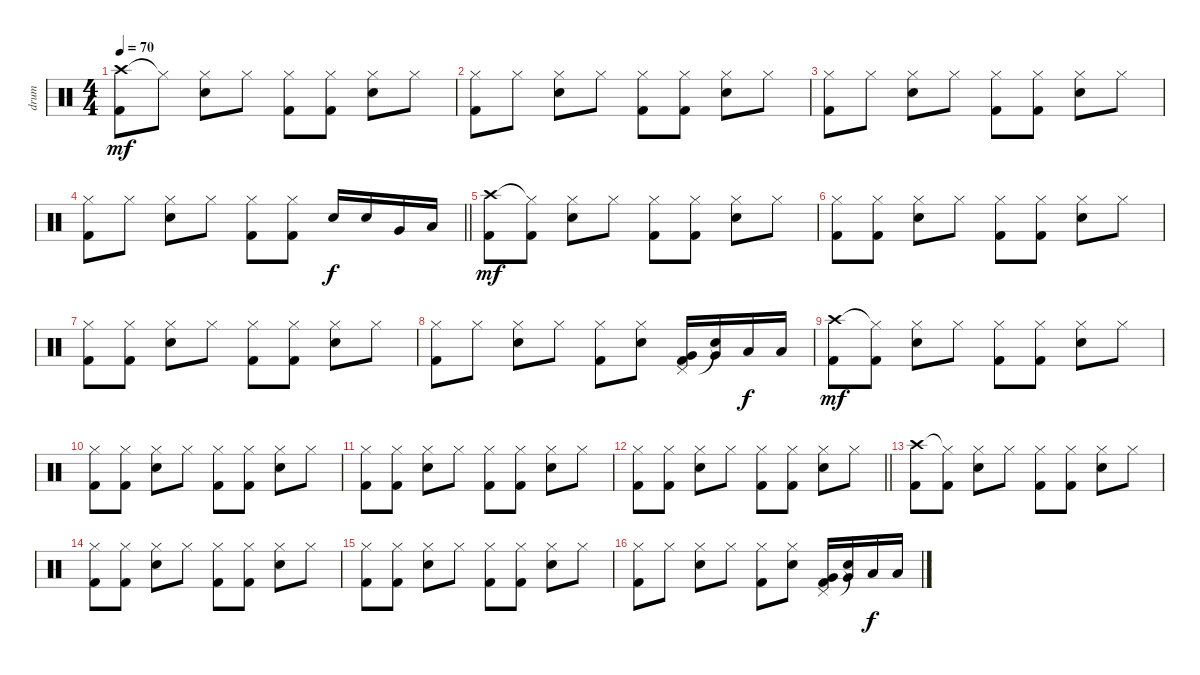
\track ("drum" "drum") {instrument percussion}
\staff
\articulation defaults
\ts (4 4)
\tempo 70
\clef neutral
\ks c
("Crash high (hit)" "Kick (hit) 2").8{dy mf} "Hi-Hat (closed)"{t}.8 ("Hi-Hat (closed)" "Electric Snare (hit)").8 "Hi-Hat (closed)".8 ("Hi-Hat (closed)" "Kick (hit) 2").8 ("Hi-Hat (closed)" "Kick (hit) 2").8 ("Hi-Hat (closed)" "Electric Snare (hit)").8 "Hi-Hat (closed)".8 |
("Hi-Hat (closed)" "Kick (hit) 2").8 "Hi-Hat (closed)".8 ("Hi-Hat (closed)" "Electric Snare (hit)").8 "Hi-Hat (closed)".8 ("Hi-Hat (closed)" "Kick (hit) 2").8 ("Hi-Hat (closed)" "Kick (hit) 2").8 ("Hi-Hat (closed)" "Electric Snare (hit)").8 "Hi-Hat (closed)".8 |
("Hi-Hat (closed)" "Kick (hit) 2").8 "Hi-Hat (closed)".8 ("Hi-Hat (closed)" "Electric Snare (hit)").8 "Hi-Hat (closed)".8 ("Hi-Hat (closed)" "Kick (hit) 2").8 ("Hi-Hat (closed)" "Kick (hit) 2").8 ("Hi-Hat (closed)" "Electric Snare (hit)").8 "Hi-Hat (closed)".8 |
\barLineRight lightlight
("Hi-Hat (closed)" "Kick (hit) 2").8 "Hi-Hat (closed)".8 ("Hi-Hat (closed)" "Electric Snare (hit)").8 "Hi-Hat (closed)".8 ("Hi-Hat (closed)" "Kick (hit) 2").8 ("Hi-Hat (closed)" "Kick (hit) 2").8 "Electric Snare (hit)".16{dy f} "Electric Snare (hit)".16 "Very Low Tom (hit)".16 "Low Floor Tom (hit)".16 |
("Crash high (hit)" "Kick (hit) 2").8{dy mf} ("Hi-Hat (closed)"{t} "Kick (hit) 2").8 ("Hi-Hat (closed)" "Electric Snare (hit)").8 "Hi-Hat (closed)".8 ("Hi-Hat (closed)" "Kick (hit) 2").8 ("Hi-Hat (closed)" "Kick (hit) 2").8 ("Hi-Hat (closed)" "Electric Snare (hit)").8 "Hi-Hat (closed)".8 |
("Hi-Hat (closed)" "Kick (hit) 2").8 ("Hi-Hat (closed)" "Kick (hit) 2").8 ("Hi-Hat (closed)" "Electric Snare (hit)").8 "Hi-Hat (closed)".8 ("Hi-Hat (closed)" "Kick (hit) 2").8 ("Hi-Hat (closed)" "Kick (hit) 2").8 ("Hi-Hat (closed)" "Electric Snare (hit)").8 "Hi-Hat (closed)".8 |
("Hi-Hat (closed)" "Kick (hit) 2").8 ("Hi-Hat (closed)" "Kick (hit) 2").8 ("Hi-Hat (closed)" "Electric Snare (hit)").8 "Hi-Hat (closed)".8 ("Hi-Hat (closed)" "Kick (hit) 2").8 ("Hi-Hat (closed)" "Kick (hit) 2").8 ("Hi-Hat (closed)" "Electric Snare (hit)").8 "Hi-Hat (closed)".8 |
("Hi-Hat (closed)" "Kick (hit) 2").8 "Hi-Hat (closed)".8 ("Hi-Hat (closed)" "Electric Snare (hit)").8 "Hi-Hat (closed)".8 ("Hi-Hat (closed)" "Kick (hit) 2").8 ("Hi-Hat (closed)" "Electric Snare (hit)").8 ("Pedal Hi-Hat (hit)" "Very Low Tom (hit)" "Kick (hit) 2").16 ("Snare (hit)"{t} "Very Low Tom (hit)").16 "Low Floor Tom (hit)".16{dy f} "Low Floor Tom (hit)".16 |
("Crash high (hit)" "Kick (hit) 2").8{dy mf} ("Hi-Hat (closed)"{t} "Kick (hit) 2").8 ("Hi-Hat (closed)" "Electric Snare (hit)").8 "Hi-Hat (closed)".8 ("Hi-Hat (closed)" "Kick (hit) 2").8 ("Hi-Hat (closed)" "Kick (hit) 2").8 ("Hi-Hat (closed)" "Electric Snare (hit)").8 "Hi-Hat (closed)".8 |
("Hi-Hat (closed)" "Kick (hit) 2").8 ("Hi-Hat (closed)" "Kick (hit) 2").8 ("Hi-Hat (closed)" "Electric Snare (hit)").8 "Hi-Hat (closed)".8 ("Hi-Hat (closed)" "Kick (hit) 2").8 ("Hi-Hat (closed)" "Kick (hit) 2").8 ("Hi-Hat (closed)" "Electric Snare (hit)").8 "Hi-Hat (closed)".8 |
("Hi-Hat (closed)" "Kick (hit) 2").8 ("Hi-Hat (closed)" "Kick (hit) 2").8 ("Hi-Hat (closed)" "Electric Snare (hit)").8 "Hi-Hat (closed)".8 ("Hi-Hat (closed)" "Kick (hit) 2").8 ("Hi-Hat (closed)" "Kick (hit) 2").8 ("Hi-Hat (closed)" "Electric Snare (hit)").8 "Hi-Hat (closed)".8 |
\barLineRight lightlight
("Hi-Hat (closed)" "Kick (hit) 2").8 ("Hi-Hat (closed)" "Kick (hit) 2").8 ("Hi-Hat (closed)" "Electric Snare (hit)").8 "Hi-Hat (closed)".8 ("Hi-Hat (closed)" "Kick (hit) 2").8 ("Hi-Hat (closed)" "Kick (hit) 2").8 ("Hi-Hat (closed)" "Electric Snare (hit)").8 "Hi-Hat (closed)".8 |
("Crash high (hit)" "Kick (hit) 2").8 ("Hi-Hat (closed)"{t} "Kick (hit) 2").8 ("Hi-Hat (closed)" "Electric Snare (hit)").8 "Hi-Hat (closed)".8 ("Hi-Hat (closed)" "Kick (hit) 2").8 ("Hi-Hat (closed)" "Kick (hit) 2").8 ("Hi-Hat (closed)" "Electric Snare (hit)").8 "Hi-Hat (closed)".8 |
("Hi-Hat (closed)" "Kick (hit) 2").8 ("Hi-Hat (closed)" "Kick (hit) 2").8 ("Hi-Hat (closed)" "Electric Snare (hit)").8 "Hi-Hat (closed)".8 ("Hi-Hat (closed)" "Kick (hit) 2").8 ("Hi-Hat (closed)" "Kick (hit) 2").8 ("Hi-Hat (closed)" "Electric Snare (hit)").8 "Hi-Hat (closed)".8 |
("Hi-Hat (closed)" "Kick (hit) 2").8 ("Hi-Hat (closed)" "Kick (hit) 2").8 ("Hi-Hat (closed)" "Electric Snare (hit)").8 "Hi-Hat (closed)".8 ("Hi-Hat (closed)" "Kick (hit) 2").8 ("Hi-Hat (closed)" "Kick (hit) 2").8 ("Hi-Hat (closed)" "Electric Snare (hit)").8 "Hi-Hat (closed)".8 |
("Hi-Hat (closed)" "Kick (hit) 2").8 "Hi-Hat (closed)".8 ("Hi-Hat (closed)" "Electric Snare (hit)").8 "Hi-Hat (closed)".8 ("Hi-Hat (closed)" "Kick (hit) 2").8 ("Hi-Hat (closed)" "Electric Snare (hit)").8 ("Pedal Hi-Hat (hit)" "Very Low Tom (hit)" "Kick (hit) 2").16 ("Snare (hit)"{t} "Very Low Tom (hit)").16 "Low Floor Tom (hit)".16{dy f} "Low Floor Tom (hit)".16
